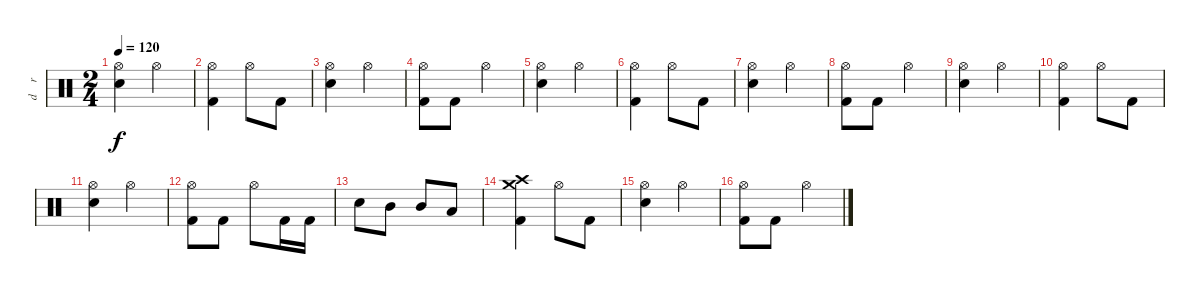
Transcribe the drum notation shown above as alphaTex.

\track ("d    r     u    m    s" "d    r    ") {instrument percussion}
\staff {score}
\articulation defaults
\ts (2 4)
\tempo 120
\clef neutral
\ks c
("Hi-Hat (open)" "Snare (hit) 2").4{dy f} "Hi-Hat (open)".4 |
("Hi-Hat (open)" "Kick (hit) 2").4 "Hi-Hat (open)".8 "Kick (hit) 2".8 |
("Hi-Hat (open)" "Snare (hit) 2").4 "Hi-Hat (open)".4 |
("Hi-Hat (open)" "Kick (hit) 2").8 "Kick (hit) 2".8 "Hi-Hat (open)".4 |
("Hi-Hat (open)" "Snare (hit) 2").4 "Hi-Hat (open)".4 |
("Hi-Hat (open)" "Kick (hit) 2").4 "Hi-Hat (open)".8 "Kick (hit) 2".8 |
("Hi-Hat (open)" "Snare (hit) 2").4 "Hi-Hat (open)".4 |
("Hi-Hat (open)" "Kick (hit) 2").8 "Kick (hit) 2".8 "Hi-Hat (open)".4 |
("Hi-Hat (open)" "Snare (hit) 2").4 "Hi-Hat (open)".4 |
("Hi-Hat (open)" "Kick (hit) 2").4 "Hi-Hat (open)".8 "Kick (hit) 2".8 |
("Hi-Hat (open)" "Snare (hit) 2").4 "Hi-Hat (open)".4 |
("Hi-Hat (open)" "Kick (hit) 2").8 "Kick (hit) 2".8 "Hi-Hat (open)".8 "Kick (hit) 2".16 "Kick (hit) 2".16 |
"Snare (hit) 2".8 "Mid Tom (hit)".8 "Mid Tom (hit)".8 "Low Tom (hit)".8 |
("Crash high (hit)" "Crash medium (hit)" "Kick (hit) 2").4 "Hi-Hat (open)".8 "Kick (hit) 2".8 |
("Hi-Hat (open)" "Snare (hit) 2").4 "Hi-Hat (open)".4 |
("Hi-Hat (open)" "Kick (hit) 2").8 "Kick (hit) 2".8 "Hi-Hat (open)".4
